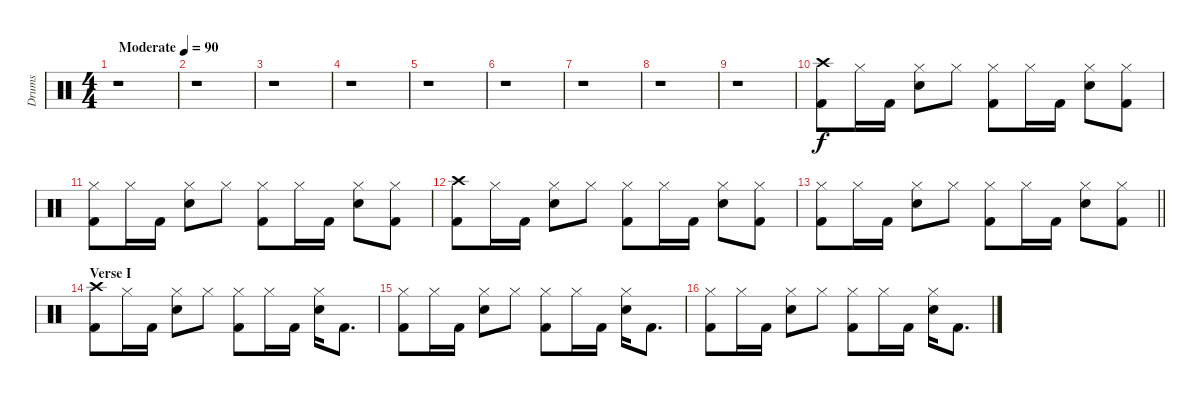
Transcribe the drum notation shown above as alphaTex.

\track ("Drums" "Drums") {instrument percussion}
\staff {score}
\articulation defaults
\ts (4 4)
\tempo (90 "Moderate")
\clef neutral
\ks c
r.1{dy f} |
r.1 |
r.1 |
r.1 |
r.1 |
r.1 |
r.1 |
r.1 |
r.1 |
("Crash high (hit)" "Kick (hit) 2").8 "Hi-Hat (closed)".16 "Kick (hit) 2".16 ("Hi-Hat (closed)" "Snare (hit) 2").8 "Hi-Hat (closed)".8 ("Hi-Hat (closed)" "Kick (hit) 2").8 "Hi-Hat (closed)".16 "Kick (hit) 2".16 ("Hi-Hat (closed)" "Snare (hit) 2").8 ("Hi-Hat (closed)" "Kick (hit) 2").8 |
("Hi-Hat (closed)" "Kick (hit) 2").8 "Hi-Hat (closed)".16 "Kick (hit) 2".16 ("Hi-Hat (closed)" "Snare (hit) 2").8 "Hi-Hat (closed)".8 ("Hi-Hat (closed)" "Kick (hit) 2").8 "Hi-Hat (closed)".16 "Kick (hit) 2".16 ("Hi-Hat (closed)" "Snare (hit) 2").8 ("Hi-Hat (closed)" "Kick (hit) 2").8 |
("Crash high (hit)" "Kick (hit) 2").8 "Hi-Hat (closed)".16 "Kick (hit) 2".16 ("Hi-Hat (closed)" "Snare (hit) 2").8 "Hi-Hat (closed)".8 ("Hi-Hat (closed)" "Kick (hit) 2").8 "Hi-Hat (closed)".16 "Kick (hit) 2".16 ("Hi-Hat (closed)" "Snare (hit) 2").8 ("Hi-Hat (closed)" "Kick (hit) 2").8 |
\barLineRight lightlight
("Hi-Hat (closed)" "Kick (hit) 2").8 "Hi-Hat (closed)".16 "Kick (hit) 2".16 ("Hi-Hat (closed)" "Snare (hit) 2").8 "Hi-Hat (closed)".8 ("Hi-Hat (closed)" "Kick (hit) 2").8 "Hi-Hat (closed)".16 "Kick (hit) 2".16 ("Hi-Hat (closed)" "Snare (hit) 2").8 ("Hi-Hat (closed)" "Kick (hit) 2").8 |
\section ("" "Verse I")
("Crash high (hit)" "Kick (hit) 2").8 "Hi-Hat (closed)".16 "Kick (hit) 2".16 ("Hi-Hat (closed)" "Snare (hit) 2").8 "Hi-Hat (closed)".8 ("Hi-Hat (closed)" "Kick (hit) 2").8 "Hi-Hat (closed)".16 "Kick (hit) 2".16 ("Hi-Hat (closed)" "Snare (hit) 2").16 "Kick (hit) 2".8{d} |
("Hi-Hat (closed)" "Kick (hit) 2").8 "Hi-Hat (closed)".16 "Kick (hit) 2".16 ("Hi-Hat (closed)" "Snare (hit) 2").8 "Hi-Hat (closed)".8 ("Hi-Hat (closed)" "Kick (hit) 2").8 "Hi-Hat (closed)".16 "Kick (hit) 2".16 ("Hi-Hat (closed)" "Snare (hit) 2").16 "Kick (hit) 2".8{d} |
("Hi-Hat (closed)" "Kick (hit) 2").8 "Hi-Hat (closed)".16 "Kick (hit) 2".16 ("Hi-Hat (closed)" "Snare (hit) 2").8 "Hi-Hat (closed)".8 ("Hi-Hat (closed)" "Kick (hit) 2").8 "Hi-Hat (closed)".16 "Kick (hit) 2".16 ("Hi-Hat (closed)" "Snare (hit) 2").16 "Kick (hit) 2".8{d}
